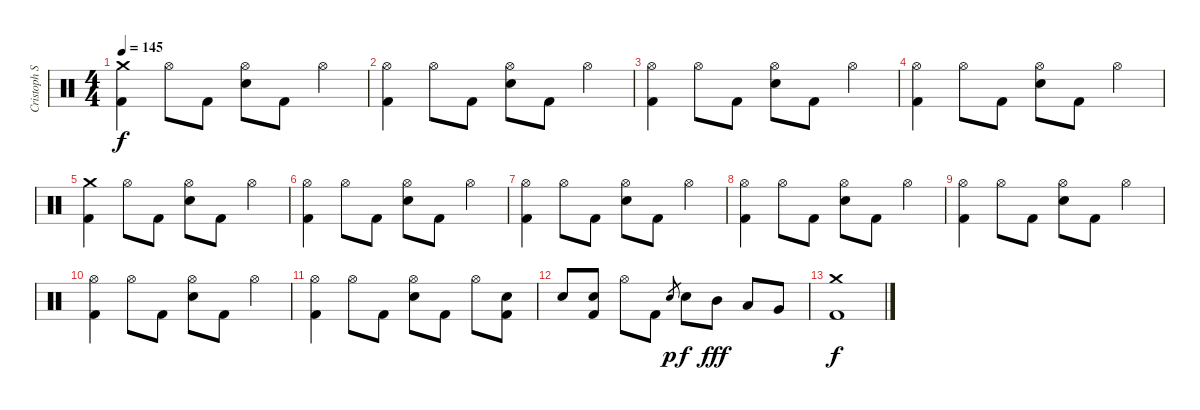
\track ("Cristoph Schneider" "Cristoph S") {instrument percussion}
\staff {score}
\articulation defaults
\ts (4 4)
\tempo 145
\clef neutral
\ks c
("Kick (hit) 2" "Crash medium (hit)").4{dy f} "Hi-Hat (open)".8 "Kick (hit) 2".8 ("Hi-Hat (open)" "Snare (hit) 2").8 "Kick (hit) 2".8 "Hi-Hat (open)".4 |
("Kick (hit) 2" "Hi-Hat (open)").4 "Hi-Hat (open)".8 "Kick (hit) 2".8 ("Hi-Hat (open)" "Snare (hit) 2").8 "Kick (hit) 2".8 "Hi-Hat (open)".4 |
("Kick (hit) 2" "Hi-Hat (open)").4 "Hi-Hat (open)".8 "Kick (hit) 2".8 ("Hi-Hat (open)" "Snare (hit) 2").8 "Kick (hit) 2".8 "Hi-Hat (open)".4 |
("Kick (hit) 2" "Hi-Hat (open)").4 "Hi-Hat (open)".8 "Kick (hit) 2".8 ("Hi-Hat (open)" "Snare (hit) 2").8 "Kick (hit) 2".8 "Hi-Hat (open)".4 |
("Kick (hit) 2" "Crash medium (hit)").4 "Hi-Hat (open)".8 "Kick (hit) 2".8 ("Hi-Hat (open)" "Snare (hit) 2").8 "Kick (hit) 2".8 "Hi-Hat (open)".4 |
("Kick (hit) 2" "Hi-Hat (open)").4 "Hi-Hat (open)".8 "Kick (hit) 2".8 ("Hi-Hat (open)" "Snare (hit) 2").8 "Kick (hit) 2".8 "Hi-Hat (open)".4 |
("Kick (hit) 2" "Hi-Hat (open)").4 "Hi-Hat (open)".8 "Kick (hit) 2".8 ("Hi-Hat (open)" "Snare (hit) 2").8 "Kick (hit) 2".8 "Hi-Hat (open)".4 |
("Kick (hit) 2" "Hi-Hat (open)").4 "Hi-Hat (open)".8 "Kick (hit) 2".8 ("Hi-Hat (open)" "Snare (hit) 2").8 "Kick (hit) 2".8 "Hi-Hat (open)".4 |
("Kick (hit) 2" "Hi-Hat (open)").4 "Hi-Hat (open)".8 "Kick (hit) 2".8 ("Hi-Hat (open)" "Snare (hit) 2").8 "Kick (hit) 2".8 "Hi-Hat (open)".4 |
("Kick (hit) 2" "Hi-Hat (open)").4 "Hi-Hat (open)".8 "Kick (hit) 2".8 ("Hi-Hat (open)" "Snare (hit) 2").8 "Kick (hit) 2".8 "Hi-Hat (open)".4 |
("Kick (hit) 2" "Hi-Hat (open)").4 "Hi-Hat (open)".8 "Kick (hit) 2".8 ("Hi-Hat (open)" "Snare (hit) 2").8 "Kick (hit) 2".8 "Hi-Hat (open)".8 ("Kick (hit) 2" "Electric Snare (hit)").8 |
"Snare (hit) 2".8 ("Kick (hit) 2" "Electric Snare (hit)").8 "Hi-Hat (open)".8 "Kick (hit) 2".8 "Snare (hit) 2".8{gr dy p} "Snare (hit) 2".8{dy f} "Mid Tom (hit)".8{dy fff} "Low Tom (hit)".8 "Very Low Tom (hit)".8 |
("Kick (hit) 2" "Crash medium (hit)").1{dy f}
